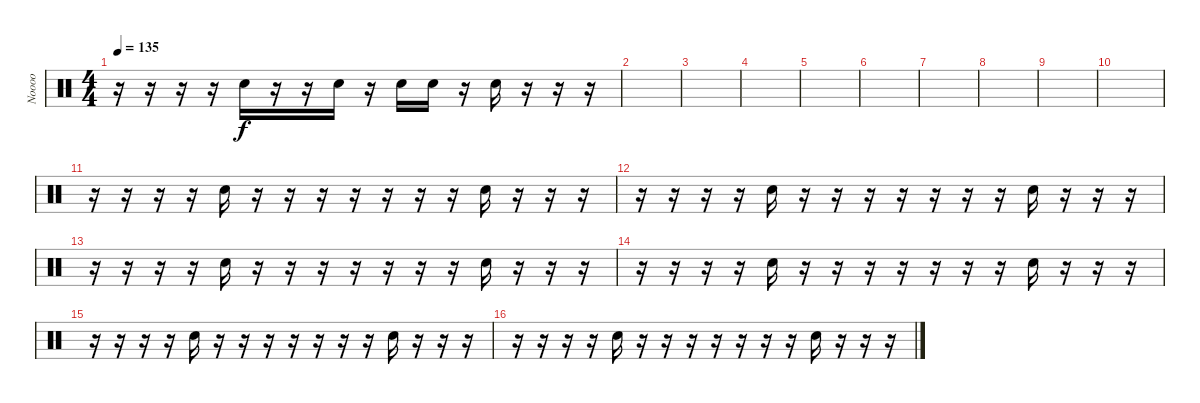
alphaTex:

\track ("Noooo" "Noooo") {instrument percussion}
\staff {score}
\articulation defaults
\ts (4 4)
\tempo 135
\clef neutral
\ks c
r.16{dy f} r.16 r.16 r.16 "Hand Clap (hit)".16 r.16 r.16 "Hand Clap (hit)".16 r.16 "Hand Clap (hit)".16 "Hand Clap (hit)".16 r.16 "Hand Clap (hit)".16 r.16 r.16 r.16 |
|
|
|
|
|
|
|
|
|
r.16 r.16 r.16 r.16 "Hand Clap (hit)".16 r.16 r.16 r.16 r.16 r.16 r.16 r.16 "Hand Clap (hit)".16 r.16 r.16 r.16 |
r.16 r.16 r.16 r.16 "Hand Clap (hit)".16 r.16 r.16 r.16 r.16 r.16 r.16 r.16 "Hand Clap (hit)".16 r.16 r.16 r.16 |
r.16 r.16 r.16 r.16 "Hand Clap (hit)".16 r.16 r.16 r.16 r.16 r.16 r.16 r.16 "Hand Clap (hit)".16 r.16 r.16 r.16 |
r.16 r.16 r.16 r.16 "Hand Clap (hit)".16 r.16 r.16 r.16 r.16 r.16 r.16 r.16 "Hand Clap (hit)".16 r.16 r.16 r.16 |
r.16 r.16 r.16 r.16 "Hand Clap (hit)".16 r.16 r.16 r.16 r.16 r.16 r.16 r.16 "Hand Clap (hit)".16 r.16 r.16 r.16 |
r.16 r.16 r.16 r.16 "Hand Clap (hit)".16 r.16 r.16 r.16 r.16 r.16 r.16 r.16 "Hand Clap (hit)".16 r.16 r.16 r.16
